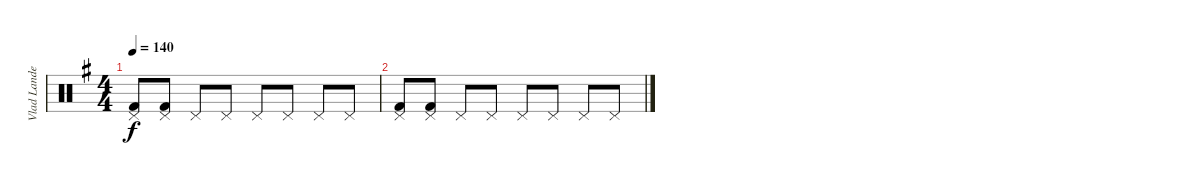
\track ("Vlad Landeros" "Vlad Lande") {instrument percussion}
\staff {score}
\articulation defaults
\ts (4 4)
\tempo 140
\clef neutral
\ks eminor
("Pedal Hi-Hat (hit)" "Kick (hit) 2").8{dy f} ("Pedal Hi-Hat (hit)" "Kick (hit) 2").8 "Pedal Hi-Hat (hit)".8 "Pedal Hi-Hat (hit)".8 "Pedal Hi-Hat (hit)".8 "Pedal Hi-Hat (hit)".8 "Pedal Hi-Hat (hit)".8 "Pedal Hi-Hat (hit)".8 |
("Pedal Hi-Hat (hit)" "Kick (hit) 2").8 ("Pedal Hi-Hat (hit)" "Kick (hit) 2").8 "Pedal Hi-Hat (hit)".8 "Pedal Hi-Hat (hit)".8 "Pedal Hi-Hat (hit)".8 "Pedal Hi-Hat (hit)".8 "Pedal Hi-Hat (hit)".8 "Pedal Hi-Hat (hit)".8
